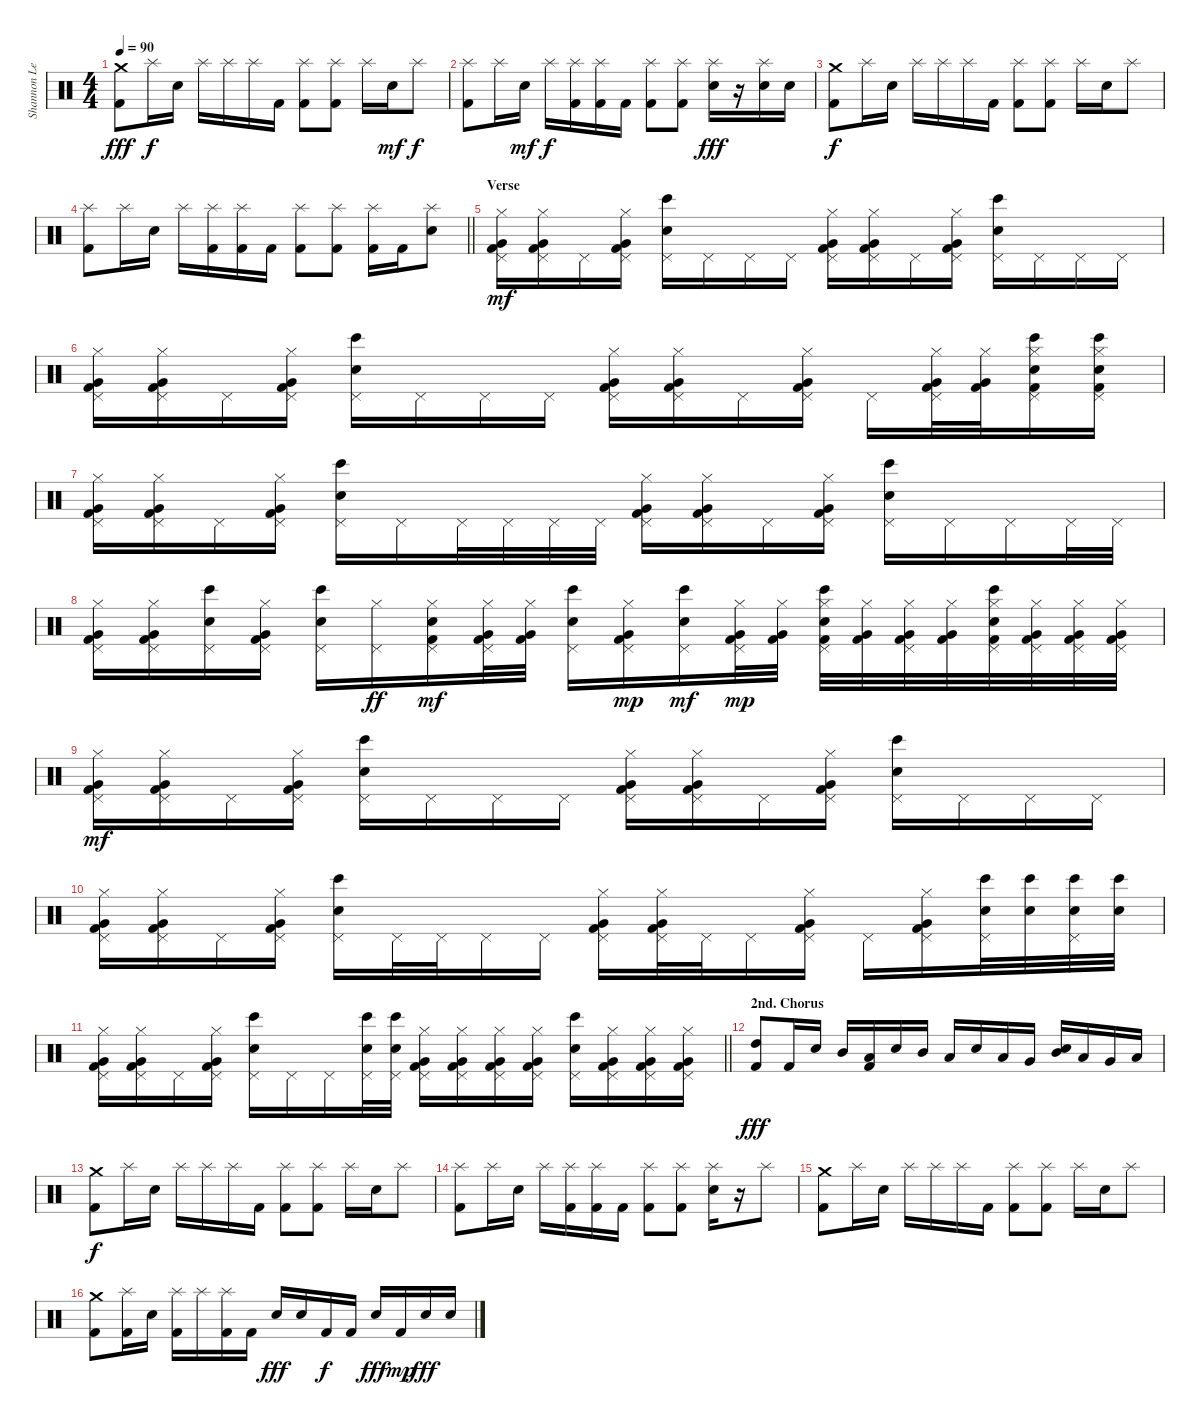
\track ("Shannon Leto - Drums" "Shannon Le") {instrument percussion}
\staff {score}
\articulation defaults
\ts (4 4)
\tempo 90
\clef neutral
\ks c
("Crash medium (hit)" "Kick (hit) 2").8{dy fff} "Splash (hit)".16{dy f} "Electric Snare (hit)".16 "Splash (hit)".16 "Splash (hit)".16 "Splash (hit)".16 "Kick (hit) 2".16 ("Splash (hit)" "Kick (hit) 2").8 ("Splash (hit)" "Kick (hit) 2").8 "Splash (hit)".16 "Electric Snare (hit)".16{dy mf} "Splash (hit)".8{dy f} |
("Splash (hit)" "Kick (hit) 2").8 "Splash (hit)".16 "Electric Snare (hit)".16{dy mf} "Splash (hit)".16{dy f} ("Splash (hit)" "Kick (hit) 2").16 ("Splash (hit)" "Kick (hit) 2").16 "Kick (hit) 2".16 ("Splash (hit)" "Kick (hit) 2").8 ("Splash (hit)" "Kick (hit) 2").8 ("Splash (hit)" "Electric Snare (hit)").16{dy fff} r.16 ("Splash (hit)" "Electric Snare (hit)").16 "Electric Snare (hit)".16 |
("Crash medium (hit)" "Kick (hit) 2").8{dy f} "Splash (hit)".16 "Electric Snare (hit)".16 "Splash (hit)".16 "Splash (hit)".16 "Splash (hit)".16 "Kick (hit) 2".16 ("Splash (hit)" "Kick (hit) 2").8 ("Splash (hit)" "Kick (hit) 2").8 "Splash (hit)".16 "Electric Snare (hit)".16 "Splash (hit)".8 |
\barLineRight lightlight
("Splash (hit)" "Kick (hit) 2").8 "Splash (hit)".16 "Electric Snare (hit)".16 "Splash (hit)".16 ("Splash (hit)" "Kick (hit) 2").16 ("Splash (hit)" "Kick (hit) 2").16 "Kick (hit) 2".16 ("Splash (hit)" "Kick (hit) 2").8 ("Splash (hit)" "Kick (hit) 2").8 ("Splash (hit)" "Kick (hit) 2").16 "Kick (hit) 2".16 ("Splash (hit)" "Electric Snare (hit)").8 |
\section ("" "Verse")
("Pedal Hi-Hat (hit)" "Very Low Tom (hit)" "Hi-Hat (closed)" "Kick (hit) 2").16{dy mf volume 16} ("Pedal Hi-Hat (hit)" "Very Low Tom (hit)" "Hi-Hat (closed)" "Kick (hit) 2").16 "Pedal Hi-Hat (hit)".16 ("Pedal Hi-Hat (hit)" "Very Low Tom (hit)" "Hi-Hat (closed)" "Kick (hit) 2").16 ("Pedal Hi-Hat (hit)" "Snare (hit) 2" "Bongo High (hit)").16 "Pedal Hi-Hat (hit)".16 "Pedal Hi-Hat (hit)".16 "Pedal Hi-Hat (hit)".16 ("Pedal Hi-Hat (hit)" "Very Low Tom (hit)" "Hi-Hat (closed)" "Kick (hit) 2").16 ("Pedal Hi-Hat (hit)" "Very Low Tom (hit)" "Hi-Hat (closed)" "Kick (hit) 2").16 "Pedal Hi-Hat (hit)".16 ("Pedal Hi-Hat (hit)" "Very Low Tom (hit)" "Hi-Hat (closed)" "Kick (hit) 2").16 ("Pedal Hi-Hat (hit)" "Snare (hit) 2" "Bongo High (hit)").16 "Pedal Hi-Hat (hit)".16 "Pedal Hi-Hat (hit)".16 "Pedal Hi-Hat (hit)".16 |
("Pedal Hi-Hat (hit)" "Very Low Tom (hit)" "Hi-Hat (closed)" "Kick (hit) 2").16 ("Pedal Hi-Hat (hit)" "Very Low Tom (hit)" "Hi-Hat (closed)" "Kick (hit) 2").16 "Pedal Hi-Hat (hit)".16 ("Pedal Hi-Hat (hit)" "Very Low Tom (hit)" "Hi-Hat (closed)" "Kick (hit) 2").16 ("Pedal Hi-Hat (hit)" "Snare (hit) 2" "Bongo High (hit)").16 "Pedal Hi-Hat (hit)".16 "Pedal Hi-Hat (hit)".16 "Pedal Hi-Hat (hit)".16 ("Pedal Hi-Hat (hit)" "Very Low Tom (hit)" "Hi-Hat (closed)" "Kick (hit) 2").16 ("Pedal Hi-Hat (hit)" "Very Low Tom (hit)" "Hi-Hat (closed)" "Kick (hit) 2").16 "Pedal Hi-Hat (hit)".16 ("Pedal Hi-Hat (hit)" "Very Low Tom (hit)" "Hi-Hat (closed)" "Kick (hit) 2").16 "Pedal Hi-Hat (hit)".16 ("Pedal Hi-Hat (hit)" "Very Low Tom (hit)" "Hi-Hat (closed)" "Kick (hit) 2").32 ("Very Low Tom (hit)" "Hi-Hat (closed)" "Kick (hit) 2").32 ("Pedal Hi-Hat (hit)" "Snare (hit) 2" "Bongo High (hit)" "Hi-Hat (closed)" "Kick (hit) 2").16 ("Pedal Hi-Hat (hit)" "Snare (hit) 2" "Bongo High (hit)" "Hi-Hat (closed)" "Kick (hit) 2").16 |
("Pedal Hi-Hat (hit)" "Very Low Tom (hit)" "Hi-Hat (closed)" "Kick (hit) 2").16 ("Pedal Hi-Hat (hit)" "Very Low Tom (hit)" "Hi-Hat (closed)" "Kick (hit) 2").16 "Pedal Hi-Hat (hit)".16 ("Pedal Hi-Hat (hit)" "Very Low Tom (hit)" "Hi-Hat (closed)" "Kick (hit) 2").16 ("Pedal Hi-Hat (hit)" "Snare (hit) 2" "Bongo High (hit)").16 "Pedal Hi-Hat (hit)".16 "Pedal Hi-Hat (hit)".32 "Pedal Hi-Hat (hit)".32 "Pedal Hi-Hat (hit)".32 "Pedal Hi-Hat (hit)".32 ("Pedal Hi-Hat (hit)" "Very Low Tom (hit)" "Hi-Hat (closed)" "Kick (hit) 2").16 ("Pedal Hi-Hat (hit)" "Very Low Tom (hit)" "Hi-Hat (closed)" "Kick (hit) 2").16 "Pedal Hi-Hat (hit)".16 ("Pedal Hi-Hat (hit)" "Very Low Tom (hit)" "Hi-Hat (closed)" "Kick (hit) 2").16 ("Pedal Hi-Hat (hit)" "Snare (hit) 2" "Bongo High (hit)").16 "Pedal Hi-Hat (hit)".16 "Pedal Hi-Hat (hit)".16 "Pedal Hi-Hat (hit)".32 "Pedal Hi-Hat (hit)".32 |
("Pedal Hi-Hat (hit)" "Very Low Tom (hit)" "Hi-Hat (closed)" "Kick (hit) 2").16 ("Pedal Hi-Hat (hit)" "Very Low Tom (hit)" "Hi-Hat (closed)" "Kick (hit) 2").16 ("Pedal Hi-Hat (hit)" "Snare (hit) 2" "Bongo High (hit)").16 ("Pedal Hi-Hat (hit)" "Very Low Tom (hit)" "Hi-Hat (closed)" "Kick (hit) 2").16 ("Pedal Hi-Hat (hit)" "Snare (hit) 2" "Bongo High (hit)").16 ("Pedal Hi-Hat (hit)" "Hi-Hat (closed)").16{dy ff} ("Pedal Hi-Hat (hit)" "Snare (hit)" "Hi-Hat (closed)" "Kick (hit) 2").16{dy mf} ("Pedal Hi-Hat (hit)" "Very Low Tom (hit)" "Hi-Hat (closed)" "Kick (hit) 2").32 ("Very Low Tom (hit)" "Hi-Hat (closed)" "Kick (hit) 2").32 ("Pedal Hi-Hat (hit)" "Snare (hit) 2" "Bongo High (hit)").16 ("Pedal Hi-Hat (hit)" "Very Low Tom (hit)" "Hi-Hat (closed)" "Kick (hit) 2").16{dy mp} ("Pedal Hi-Hat (hit)" "Snare (hit) 2" "Bongo High (hit)").16{dy mf} ("Pedal Hi-Hat (hit)" "Very Low Tom (hit)" "Hi-Hat (closed)" "Kick (hit) 2").32{dy mp} ("Very Low Tom (hit)" "Hi-Hat (closed)" "Kick (hit) 2").32 ("Pedal Hi-Hat (hit)" "Snare (hit) 2" "Bongo High (hit)" "Hi-Hat (closed)" "Kick (hit) 2").32 ("Very Low Tom (hit)" "Hi-Hat (closed)" "Kick (hit) 2").32 ("Pedal Hi-Hat (hit)" "Very Low Tom (hit)" "Hi-Hat (closed)" "Kick (hit) 2").32 ("Very Low Tom (hit)" "Hi-Hat (closed)" "Kick (hit) 2").32 ("Pedal Hi-Hat (hit)" "Snare (hit) 2" "Bongo High (hit)" "Hi-Hat (closed)" "Kick (hit) 2").32 ("Pedal Hi-Hat (hit)" "Very Low Tom (hit)" "Hi-Hat (closed)" "Kick (hit) 2").32 ("Pedal Hi-Hat (hit)" "Very Low Tom (hit)" "Hi-Hat (closed)" "Kick (hit) 2").32 ("Pedal Hi-Hat (hit)" "Very Low Tom (hit)" "Hi-Hat (closed)" "Kick (hit) 2").32 |
("Pedal Hi-Hat (hit)" "Very Low Tom (hit)" "Hi-Hat (closed)" "Kick (hit) 2").16{dy mf} ("Pedal Hi-Hat (hit)" "Very Low Tom (hit)" "Hi-Hat (closed)" "Kick (hit) 2").16 "Pedal Hi-Hat (hit)".16 ("Pedal Hi-Hat (hit)" "Very Low Tom (hit)" "Hi-Hat (closed)" "Kick (hit) 2").16 ("Pedal Hi-Hat (hit)" "Snare (hit) 2" "Bongo High (hit)").16 "Pedal Hi-Hat (hit)".16 "Pedal Hi-Hat (hit)".16 "Pedal Hi-Hat (hit)".16 ("Pedal Hi-Hat (hit)" "Very Low Tom (hit)" "Hi-Hat (closed)" "Kick (hit) 2").16 ("Pedal Hi-Hat (hit)" "Very Low Tom (hit)" "Hi-Hat (closed)" "Kick (hit) 2").16 "Pedal Hi-Hat (hit)".16 ("Pedal Hi-Hat (hit)" "Very Low Tom (hit)" "Hi-Hat (closed)" "Kick (hit) 2").16 ("Pedal Hi-Hat (hit)" "Snare (hit) 2" "Bongo High (hit)").16 "Pedal Hi-Hat (hit)".16 "Pedal Hi-Hat (hit)".16 "Pedal Hi-Hat (hit)".16 |
("Pedal Hi-Hat (hit)" "Very Low Tom (hit)" "Hi-Hat (closed)" "Kick (hit) 2").16 ("Pedal Hi-Hat (hit)" "Very Low Tom (hit)" "Hi-Hat (closed)" "Kick (hit) 2").16 "Pedal Hi-Hat (hit)".16 ("Pedal Hi-Hat (hit)" "Very Low Tom (hit)" "Hi-Hat (closed)" "Kick (hit) 2").16 ("Pedal Hi-Hat (hit)" "Snare (hit) 2" "Bongo High (hit)").16 "Pedal Hi-Hat (hit)".32 "Pedal Hi-Hat (hit)".32 "Pedal Hi-Hat (hit)".16 "Pedal Hi-Hat (hit)".16 ("Pedal Hi-Hat (hit)" "Very Low Tom (hit)" "Hi-Hat (closed)" "Kick (hit) 2").16 ("Pedal Hi-Hat (hit)" "Very Low Tom (hit)" "Hi-Hat (closed)" "Kick (hit) 2").32 "Pedal Hi-Hat (hit)".32 "Pedal Hi-Hat (hit)".16 ("Pedal Hi-Hat (hit)" "Very Low Tom (hit)" "Hi-Hat (closed)" "Kick (hit) 2").16 "Pedal Hi-Hat (hit)".16 ("Pedal Hi-Hat (hit)" "Very Low Tom (hit)" "Hi-Hat (closed)" "Kick (hit) 2").16 ("Pedal Hi-Hat (hit)" "Snare (hit) 2" "Bongo High (hit)").32 ("Snare (hit) 2" "Bongo High (hit)").32 ("Pedal Hi-Hat (hit)" "Snare (hit) 2" "Bongo High (hit)").32 ("Snare (hit) 2" "Bongo High (hit)").32 |
\barLineRight lightlight
("Pedal Hi-Hat (hit)" "Very Low Tom (hit)" "Hi-Hat (closed)" "Kick (hit) 2").16 ("Pedal Hi-Hat (hit)" "Very Low Tom (hit)" "Hi-Hat (closed)" "Kick (hit) 2").16 "Pedal Hi-Hat (hit)".16 ("Pedal Hi-Hat (hit)" "Very Low Tom (hit)" "Hi-Hat (closed)" "Kick (hit) 2").16 ("Pedal Hi-Hat (hit)" "Snare (hit) 2" "Bongo High (hit)").16 "Pedal Hi-Hat (hit)".16 "Pedal Hi-Hat (hit)".16 ("Pedal Hi-Hat (hit)" "Snare (hit) 2" "Bongo High (hit)").32 ("Pedal Hi-Hat (hit)" "Snare (hit) 2" "Bongo High (hit)").32 ("Pedal Hi-Hat (hit)" "Very Low Tom (hit)" "Hi-Hat (closed)" "Kick (hit) 2").16 ("Pedal Hi-Hat (hit)" "Very Low Tom (hit)" "Hi-Hat (closed)" "Kick (hit) 2").16 ("Pedal Hi-Hat (hit)" "Very Low Tom (hit)" "Hi-Hat (closed)" "Kick (hit) 2").16 ("Pedal Hi-Hat (hit)" "Very Low Tom (hit)" "Hi-Hat (closed)" "Kick (hit) 2").16 ("Pedal Hi-Hat (hit)" "Snare (hit) 2" "Bongo High (hit)").16 ("Pedal Hi-Hat (hit)" "Very Low Tom (hit)" "Hi-Hat (closed)" "Kick (hit) 2").16 ("Pedal Hi-Hat (hit)" "Very Low Tom (hit)" "Hi-Hat (closed)" "Kick (hit) 2").16 ("Pedal Hi-Hat (hit)" "Very Low Tom (hit)" "Hi-Hat (closed)" "Kick (hit) 2").16 |
\section ("" "2nd. Chorus")
("High Tom (hit)" "Kick (hit) 2").8{dy fff} "Kick (hit) 2".16 "Electric Snare (hit)".16 "Mid Tom (hit)".16 ("Low Tom (hit)" "Kick (hit) 2").16 "Electric Snare (hit)".16 "Mid Tom (hit)".16 "Low Tom (hit)".16 "Electric Snare (hit)".16 "Low Tom (hit)".16 "Very Low Tom (hit)".16 ("Electric Snare (hit)" "Mid Tom (hit)").16 "Low Tom (hit)".16 "Very Low Tom (hit)".16 "Low Floor Tom (hit)".16 |
("Crash medium (hit)" "Kick (hit) 2").8{dy f} "Splash (hit)".16 "Electric Snare (hit)".16 "Splash (hit)".16 "Splash (hit)".16 "Splash (hit)".16 "Kick (hit) 2".16 ("Splash (hit)" "Kick (hit) 2").8 ("Splash (hit)" "Kick (hit) 2").8 "Splash (hit)".16 "Electric Snare (hit)".16 "Splash (hit)".8 |
("Splash (hit)" "Kick (hit) 2").8 "Splash (hit)".16 "Electric Snare (hit)".16 "Splash (hit)".16 ("Splash (hit)" "Kick (hit) 2").16 ("Splash (hit)" "Kick (hit) 2").16 "Kick (hit) 2".16 ("Splash (hit)" "Kick (hit) 2").8 ("Splash (hit)" "Kick (hit) 2").8 ("Splash (hit)" "Electric Snare (hit)").16 r.16 "Splash (hit)".8 |
("Crash medium (hit)" "Kick (hit) 2").8 "Splash (hit)".16 "Electric Snare (hit)".16 "Splash (hit)".16 "Splash (hit)".16 "Splash (hit)".16 "Kick (hit) 2".16 ("Splash (hit)" "Kick (hit) 2").8 ("Splash (hit)" "Kick (hit) 2").8 "Splash (hit)".16 "Electric Snare (hit)".16 "Splash (hit)".8 |
("Crash medium (hit)" "Kick (hit) 2").8 ("Splash (hit)" "Kick (hit) 2").16 "Electric Snare (hit)".16 ("Splash (hit)" "Kick (hit) 2").16 "Splash (hit)".16 ("Splash (hit)" "Kick (hit) 2").16 "Kick (hit) 2".16 "Electric Snare (hit)".16{dy fff} "Electric Snare (hit)".16 "Kick (hit) 2".16{dy f} "Kick (hit) 2".16 "Electric Snare (hit)".16{dy fff} "Kick (hit) 2".16{dy mp} "Electric Snare (hit)".16{dy fff} "Electric Snare (hit)".16
